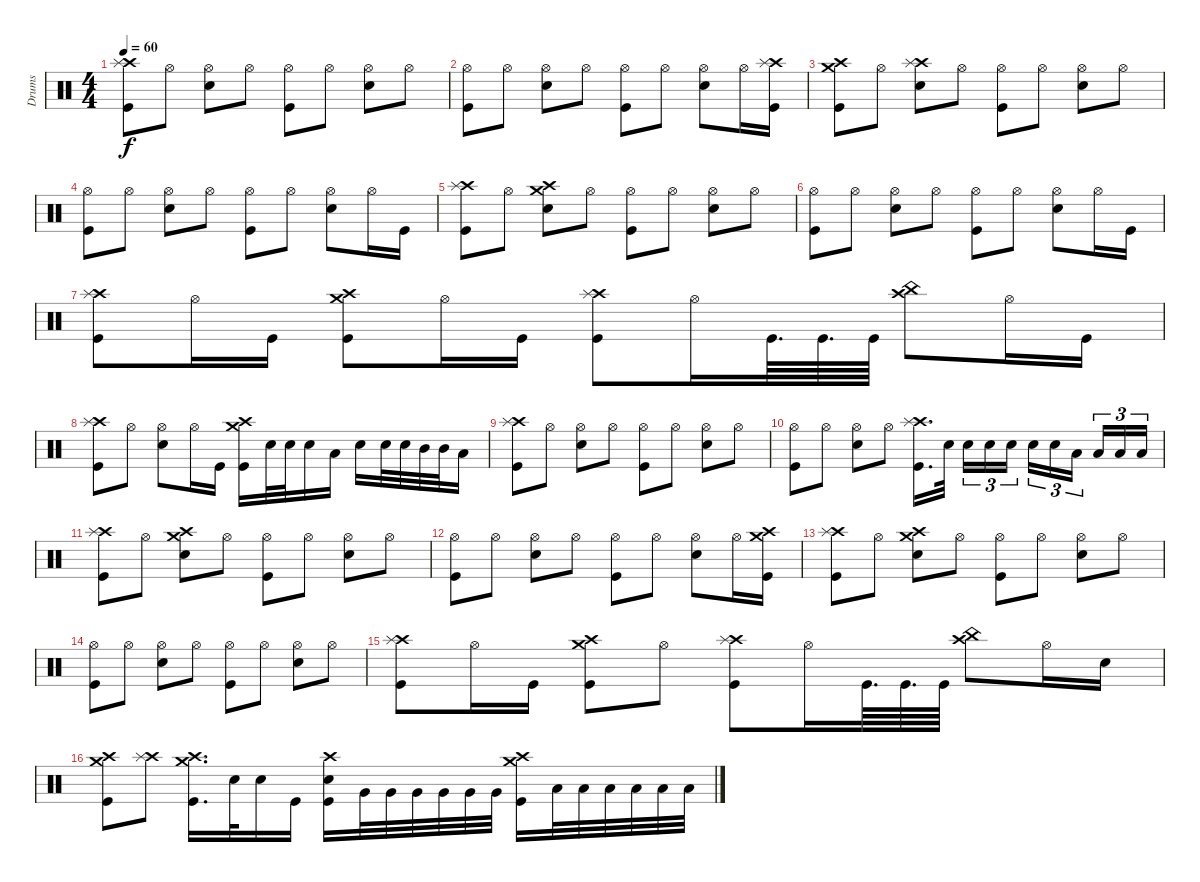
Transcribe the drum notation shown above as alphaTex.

\track ("Drums" "Drums") {instrument percussion}
\staff {score}
\articulation defaults
\ts (4 4)
\tempo 60
\clef neutral
\ks c
("Crash high (hit)" "Splash (hit)" "Kick (hit)").8{dy f} "Hi-Hat (open)".8 ("Hi-Hat (open)" "Electric Snare (hit)").8 "Hi-Hat (open)".8 ("Hi-Hat (open)" "Kick (hit)").8 "Hi-Hat (open)".8 ("Hi-Hat (open)" "Electric Snare (hit)").8 "Hi-Hat (open)".8 |
("Hi-Hat (open)" "Kick (hit)").8 "Hi-Hat (open)".8 ("Hi-Hat (open)" "Electric Snare (hit)").8 "Hi-Hat (open)".8 ("Hi-Hat (open)" "Kick (hit)").8 "Hi-Hat (open)".8 ("Hi-Hat (open)" "Electric Snare (hit)").8 "Hi-Hat (open)".16 ("Crash high (hit)" "Splash (hit)" "Kick (hit)").16 |
("Crash high (hit)" "Crash medium (hit)" "Kick (hit)").8 "Hi-Hat (open)".8 ("Crash high (hit)" "Splash (hit)" "Electric Snare (hit)").8 "Hi-Hat (open)".8 ("Hi-Hat (open)" "Kick (hit)").8 "Hi-Hat (open)".8 ("Hi-Hat (open)" "Electric Snare (hit)").8 "Hi-Hat (open)".8 |
("Hi-Hat (open)" "Kick (hit)").8 "Hi-Hat (open)".8 ("Hi-Hat (open)" "Electric Snare (hit)").8 "Hi-Hat (open)".8 ("Hi-Hat (open)" "Kick (hit)").8 "Hi-Hat (open)".8 ("Hi-Hat (open)" "Electric Snare (hit)").8 "Hi-Hat (open)".16 "Kick (hit)".16 |
("Crash high (hit)" "Splash (hit)" "Kick (hit)").8 "Hi-Hat (open)".8 ("Crash high (hit)" "Crash medium (hit)" "Electric Snare (hit)").8 "Hi-Hat (open)".8 ("Hi-Hat (open)" "Kick (hit)").8 "Hi-Hat (open)".8 ("Hi-Hat (open)" "Electric Snare (hit)").8 "Hi-Hat (open)".8 |
("Hi-Hat (open)" "Kick (hit)").8 "Hi-Hat (open)".8 ("Hi-Hat (open)" "Electric Snare (hit)").8 "Hi-Hat (open)".8 ("Hi-Hat (open)" "Kick (hit)").8 "Hi-Hat (open)".8 ("Hi-Hat (open)" "Electric Snare (hit)").8 "Hi-Hat (open)".16 "Kick (hit)".16 |
("Crash high (hit)" "Splash (hit)" "Kick (hit)").8 "Hi-Hat (open)".16 "Kick (hit)".16 ("Crash high (hit)" "Crash medium (hit)" "Kick (hit)").8 "Hi-Hat (open)".16 "Kick (hit)".16 ("Crash high (hit)" "Splash (hit)" "Kick (hit)").8 "Hi-Hat (open)".16 "Kick (hit)".64{d} "Kick (hit)".64{d} "Kick (hit)".64 ("Crash high (hit)" "China (hit)").8 "Hi-Hat (open)".16 "Kick (hit)".16 |
("Crash high (hit)" "Splash (hit)" "Kick (hit)").8 "Hi-Hat (open)".8 ("Hi-Hat (open)" "Electric Snare (hit)").8 "Hi-Hat (open)".16 "Kick (hit)".16 ("Crash high (hit)" "Crash medium (hit)" "Kick (hit)").16 "Electric Snare (hit)".32 "Electric Snare (hit)".32 "Electric Snare (hit)".16 "Low Tom (hit)".16 "Electric Snare (hit)".16 "Electric Snare (hit)".32 "Electric Snare (hit)".32 "Mid Tom (hit)".32 "Mid Tom (hit)".32 "Low Tom (hit)".16 |
("Crash high (hit)" "Splash (hit)" "Kick (hit)").8 "Hi-Hat (open)".8 ("Hi-Hat (open)" "Electric Snare (hit)").8 "Hi-Hat (open)".8 ("Hi-Hat (open)" "Kick (hit)").8 "Hi-Hat (open)".8 ("Hi-Hat (open)" "Electric Snare (hit)").8 "Hi-Hat (open)".8 |
("Hi-Hat (open)" "Kick (hit)").8 "Hi-Hat (open)".8 ("Hi-Hat (open)" "Electric Snare (hit)").8 "Hi-Hat (open)".8 ("Crash high (hit)" "Splash (hit)" "Kick (hit)").16{d} "Electric Snare (hit)".32{beam splitsecondary} "Electric Snare (hit)".16{tu (3 2)} "Electric Snare (hit)".16{tu (3 2)} "Electric Snare (hit)".16{tu (3 2)} "Electric Snare (hit)".16{tu (3 2)} "Electric Snare (hit)".16{tu (3 2)} "Low Tom (hit)".16{tu (3 2) beam splitsecondary} "Low Tom (hit)".16{tu (3 2)} "Low Tom (hit)".16{tu (3 2)} "Low Tom (hit)".16{tu (3 2)} |
("Crash high (hit)" "Splash (hit)" "Kick (hit)").8 "Hi-Hat (open)".8 ("Crash high (hit)" "Crash medium (hit)" "Electric Snare (hit)").8 "Hi-Hat (open)".8 ("Hi-Hat (open)" "Kick (hit)").8 "Hi-Hat (open)".8 ("Hi-Hat (open)" "Electric Snare (hit)").8 "Hi-Hat (open)".8 |
("Hi-Hat (open)" "Kick (hit)").8 "Hi-Hat (open)".8 ("Hi-Hat (open)" "Electric Snare (hit)").8 "Hi-Hat (open)".8 ("Hi-Hat (open)" "Kick (hit)").8 "Hi-Hat (open)".8 ("Hi-Hat (open)" "Electric Snare (hit)").8 "Hi-Hat (open)".16 ("Crash high (hit)" "Crash medium (hit)" "Kick (hit)").16 |
("Crash high (hit)" "Splash (hit)" "Kick (hit)").8 "Hi-Hat (open)".8 ("Crash high (hit)" "Crash medium (hit)" "Electric Snare (hit)").8 "Hi-Hat (open)".8 ("Hi-Hat (open)" "Kick (hit)").8 "Hi-Hat (open)".8 ("Hi-Hat (open)" "Electric Snare (hit)").8 "Hi-Hat (open)".8 |
("Hi-Hat (open)" "Kick (hit)").8 "Hi-Hat (open)".8 ("Hi-Hat (open)" "Electric Snare (hit)").8 "Hi-Hat (open)".8 ("Hi-Hat (open)" "Kick (hit)").8 "Hi-Hat (open)".8 ("Hi-Hat (open)" "Electric Snare (hit)").8 "Hi-Hat (open)".8 |
("Crash high (hit)" "Splash (hit)" "Kick (hit)").8 "Hi-Hat (open)".16 "Kick (hit)".16 ("Crash high (hit)" "Crash medium (hit)" "Kick (hit)").8 "Hi-Hat (open)".8 ("Crash high (hit)" "Splash (hit)" "Kick (hit)").8 "Hi-Hat (open)".16 "Kick (hit)".64{d} "Kick (hit)".64{d} "Kick (hit)".64 ("Crash high (hit)" "China (hit)").8 "Hi-Hat (open)".16 "Electric Snare (hit)".16 |
("Crash high (hit)" "Crash medium (hit)" "Kick (hit)").8 ("Crash high (hit)" "Splash (hit)").8 ("Crash high (hit)" "Crash medium (hit)" "Kick (hit)").16{d} "Electric Snare (hit)".32 "Electric Snare (hit)".16 "Kick (hit)".16 ("Crash high (hit)" "Electric Snare (hit)" "Kick (hit)").16 "Very Low Tom (hit)".32 "Very Low Tom (hit)".32 "Very Low Tom (hit)".32 "Very Low Tom (hit)".32 "Very Low Tom (hit)".32 "Very Low Tom (hit)".32 ("Crash high (hit)" "Crash medium (hit)" "Kick (hit)").16 "Low Floor Tom (hit)".32 "Low Floor Tom (hit)".32 "Low Floor Tom (hit)".32 "Low Floor Tom (hit)".32 "Low Floor Tom (hit)".32 "Low Floor Tom (hit)".32
